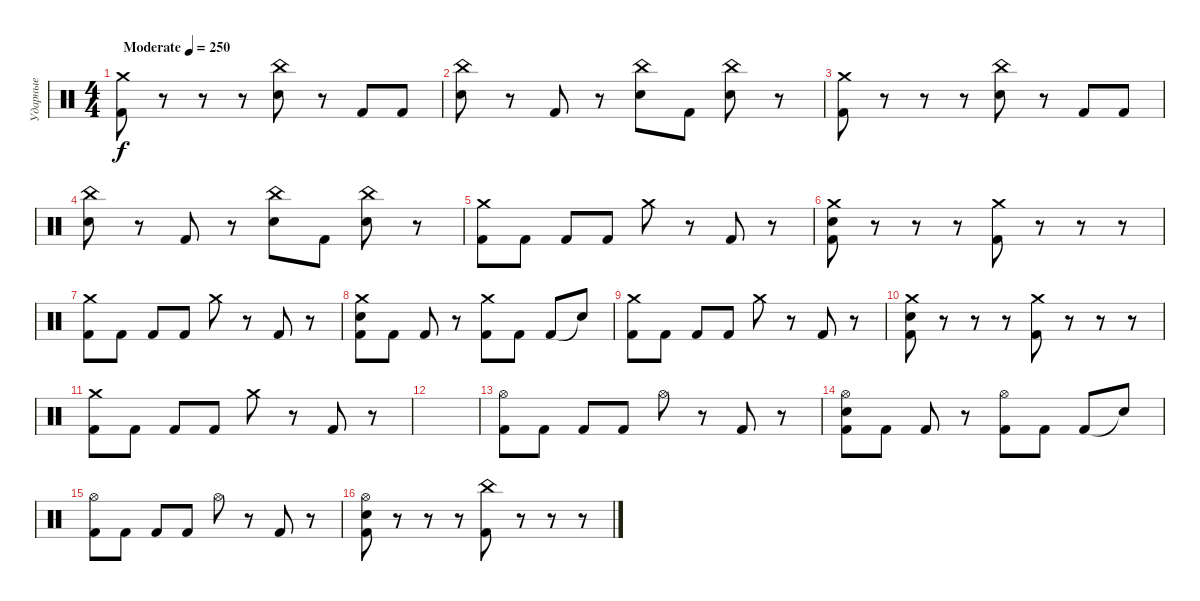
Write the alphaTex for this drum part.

\track ("Ударные" "Ударные") {instrument percussion}
\staff {score}
\articulation defaults
\ts (4 4)
\tempo (250 "Moderate")
\clef neutral
\ks c
("Crash medium (hit)" "Kick (hit) 2").8{dy f} r.8 r.8 r.8 ("Snare (hit) 2" "China (hit)").8 r.8 "Kick (hit) 2".8 "Kick (hit) 2".8 |
("Snare (hit) 2" "China (hit)").8 r.8 "Kick (hit) 2".8 r.8 ("Electric Snare (hit)" "China (hit)").8 "Kick (hit) 2".8 ("Electric Snare (hit)" "China (hit)").8 r.8 |
("Crash medium (hit)" "Kick (hit) 2").8 r.8 r.8 r.8 ("Snare (hit) 2" "China (hit)").8 r.8 "Kick (hit) 2".8 "Kick (hit) 2".8 |
("Snare (hit) 2" "China (hit)").8 r.8 "Kick (hit) 2".8 r.8 ("Snare (hit) 2" "China (hit)").8 "Kick (hit) 2".8 ("Snare (hit) 2" "China (hit)").8 r.8 |
("Crash medium (hit)" "Kick (hit) 2").8 "Kick (hit) 2".8 "Kick (hit) 2".8 "Kick (hit) 2".8 "Crash medium (hit)".8 r.8 "Kick (hit) 2".8 r.8 |
("Crash medium (hit)" "Electric Snare (hit)" "Kick (hit) 2").8 r.8 r.8 r.8 ("Crash medium (hit)" "Kick (hit) 2").8 r.8 r.8 r.8 |
("Crash medium (hit)" "Kick (hit) 2").8 "Kick (hit) 2".8 "Kick (hit) 2".8 "Kick (hit) 2".8 "Crash medium (hit)".8 r.8 "Kick (hit) 2".8 r.8 |
("Crash medium (hit)" "Electric Snare (hit)" "Kick (hit) 2").8 "Kick (hit) 2".8 "Kick (hit) 2".8 r.8 ("Crash medium (hit)" "Kick (hit) 2").8 "Kick (hit) 2".8 "Kick (hit) 2".8 "Snare (hit)"{t}.8 |
("Crash medium (hit)" "Kick (hit) 2").8 "Kick (hit) 2".8 "Kick (hit) 2".8 "Kick (hit) 2".8 "Crash medium (hit)".8 r.8 "Kick (hit) 2".8 r.8 |
("Crash medium (hit)" "Electric Snare (hit)" "Kick (hit) 2").8 r.8 r.8 r.8 ("Crash medium (hit)" "Kick (hit) 2").8 r.8 r.8 r.8 |
("Crash medium (hit)" "Kick (hit) 2").8 "Kick (hit) 2".8 "Kick (hit) 2".8 "Kick (hit) 2".8 "Crash medium (hit)".8 r.8 "Kick (hit) 2".8 r.8 |
|
("Hi-Hat (open)" "Kick (hit) 2").8 "Kick (hit) 2".8 "Kick (hit) 2".8 "Kick (hit) 2".8 "Hi-Hat (open)".8 r.8 "Kick (hit) 2".8 r.8 |
("Hi-Hat (open)" "Kick (hit) 2" "Electric Snare (hit)").8 "Kick (hit) 2".8 "Kick (hit) 2".8 r.8 ("Hi-Hat (open)" "Kick (hit) 2").8 "Kick (hit) 2".8 "Kick (hit) 2".8 "Snare (hit)"{t}.8 |
("Hi-Hat (open)" "Kick (hit) 2").8 "Kick (hit) 2".8 "Kick (hit) 2".8 "Kick (hit) 2".8 "Hi-Hat (open)".8 r.8 "Kick (hit) 2".8 r.8 |
("Hi-Hat (open)" "Kick (hit) 2" "Electric Snare (hit)").8 r.8 r.8 r.8 ("China (hit)" "Kick (hit) 2").8 r.8 r.8 r.8
